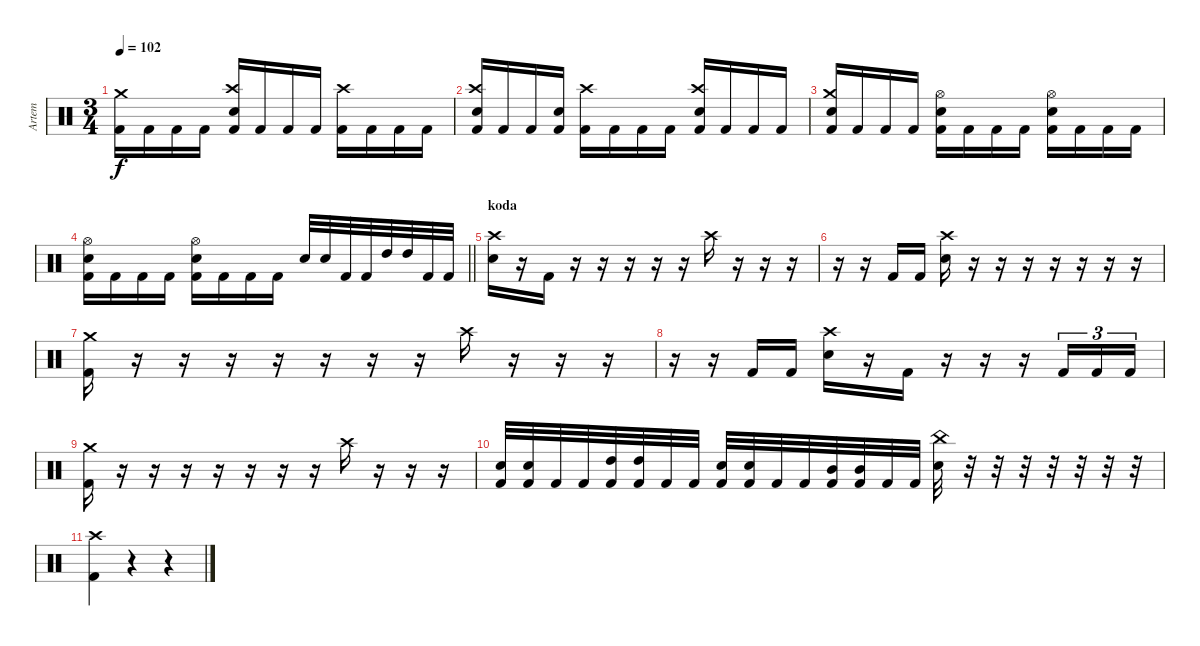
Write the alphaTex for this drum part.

\track ("Artem" "Artem") {instrument percussion}
\staff {score}
\articulation defaults
\ts (3 4)
\tempo 102
\clef neutral
\ks c
("Kick (hit) 2" "Crash medium (hit)").16{dy f} "Kick (hit) 2".16 "Kick (hit) 2".16 "Kick (hit) 2".16 ("Kick (hit) 2" "Crash high (hit)" "Electric Snare (hit)").16 "Kick (hit) 2".16 "Kick (hit) 2".16 "Kick (hit) 2".16 ("Kick (hit) 2" "Crash high (hit)").16 "Kick (hit) 2".16 "Kick (hit) 2".16 "Kick (hit) 2".16 |
("Kick (hit) 2" "Crash high (hit)" "Electric Snare (hit)").16 "Kick (hit) 2".16 "Kick (hit) 2".16 ("Kick (hit) 2" "Electric Snare (hit)").16 ("Kick (hit) 2" "Crash high (hit)").16 "Kick (hit) 2".16 "Kick (hit) 2".16 "Kick (hit) 2".16 ("Kick (hit) 2" "Crash high (hit)" "Electric Snare (hit)").16 "Kick (hit) 2".16 "Kick (hit) 2".16 "Kick (hit) 2".16 |
("Kick (hit) 2" "Crash medium (hit)" "Electric Snare (hit)").16 "Kick (hit) 2".16 "Kick (hit) 2".16 "Kick (hit) 2".16 ("Kick (hit) 2" "Hi-Hat (open)" "Electric Snare (hit)").16 "Kick (hit) 2".16 "Kick (hit) 2".16 "Kick (hit) 2".16 ("Kick (hit) 2" "Hi-Hat (open)" "Electric Snare (hit)").16 "Kick (hit) 2".16 "Kick (hit) 2".16 "Kick (hit) 2".16 |
\barLineRight lightlight
("Kick (hit) 2" "Hi-Hat (open)" "Electric Snare (hit)").16 "Kick (hit) 2".16 "Kick (hit) 2".16 "Kick (hit) 2".16 ("Kick (hit) 2" "Hi-Hat (open)" "Electric Snare (hit)").16 "Kick (hit) 2".16 "Kick (hit) 2".16 "Kick (hit) 2".16 "Electric Snare (hit)".32 "Electric Snare (hit)".32 "Kick (hit) 2".32 "Kick (hit) 2".32 "High Tom (hit)".32 "High Tom (hit)".32 "Kick (hit) 2".32 "Kick (hit) 2".32 |
\section ("" "koda")
("Crash high (hit)" "Electric Snare (hit)").16 r.16 "Kick (hit) 2".16 r.16 r.16 r.16 r.16 r.16 "Crash high (hit)".16 r.16 r.16 r.16 |
r.16 r.16 "Kick (hit) 2".16 "Kick (hit) 2".16 ("Crash high (hit)" "Electric Snare (hit)").16 r.16 r.16 r.16 r.16 r.16 r.16 r.16 |
("Crash medium (hit)" "Kick (hit) 2").16 r.16 r.16 r.16 r.16 r.16 r.16 r.16 "Crash high (hit)".16 r.16 r.16 r.16 |
r.16 r.16 "Kick (hit) 2".16 "Kick (hit) 2".16 ("Crash high (hit)" "Electric Snare (hit)").16 r.16 "Kick (hit) 2".16 r.16 r.16 r.16 "Kick (hit) 2".16{tu (3 2)} "Kick (hit) 2".16{tu (3 2)} "Kick (hit) 2".16{tu (3 2)} |
("Crash medium (hit)" "Kick (hit) 2").16 r.16 r.16 r.16 r.16 r.16 r.16 r.16 "Crash high (hit)".16 r.16 r.16 r.16 |
("Electric Snare (hit)" "Kick (hit) 2").32 ("Electric Snare (hit)" "Kick (hit) 2").32 "Kick (hit) 2".32 "Kick (hit) 2".32 ("High Tom (hit)" "Kick (hit) 2").32 ("High Tom (hit)" "Kick (hit) 2").32 "Kick (hit) 2".32 "Kick (hit) 2".32 ("Electric Snare (hit)" "Kick (hit) 2").32 ("Electric Snare (hit)" "Kick (hit) 2").32 "Kick (hit) 2".32 "Kick (hit) 2".32 ("Mid Tom (hit)" "Kick (hit) 2").32 ("Mid Tom (hit)" "Kick (hit) 2").32 "Kick (hit) 2".32 "Kick (hit) 2".32 ("Electric Snare (hit)" "China (hit)").32 r.32 r.32 r.32 r.32 r.32 r.32 r.32 |
("Kick (hit) 2" "Crash high (hit)").4 r.4 r.4
